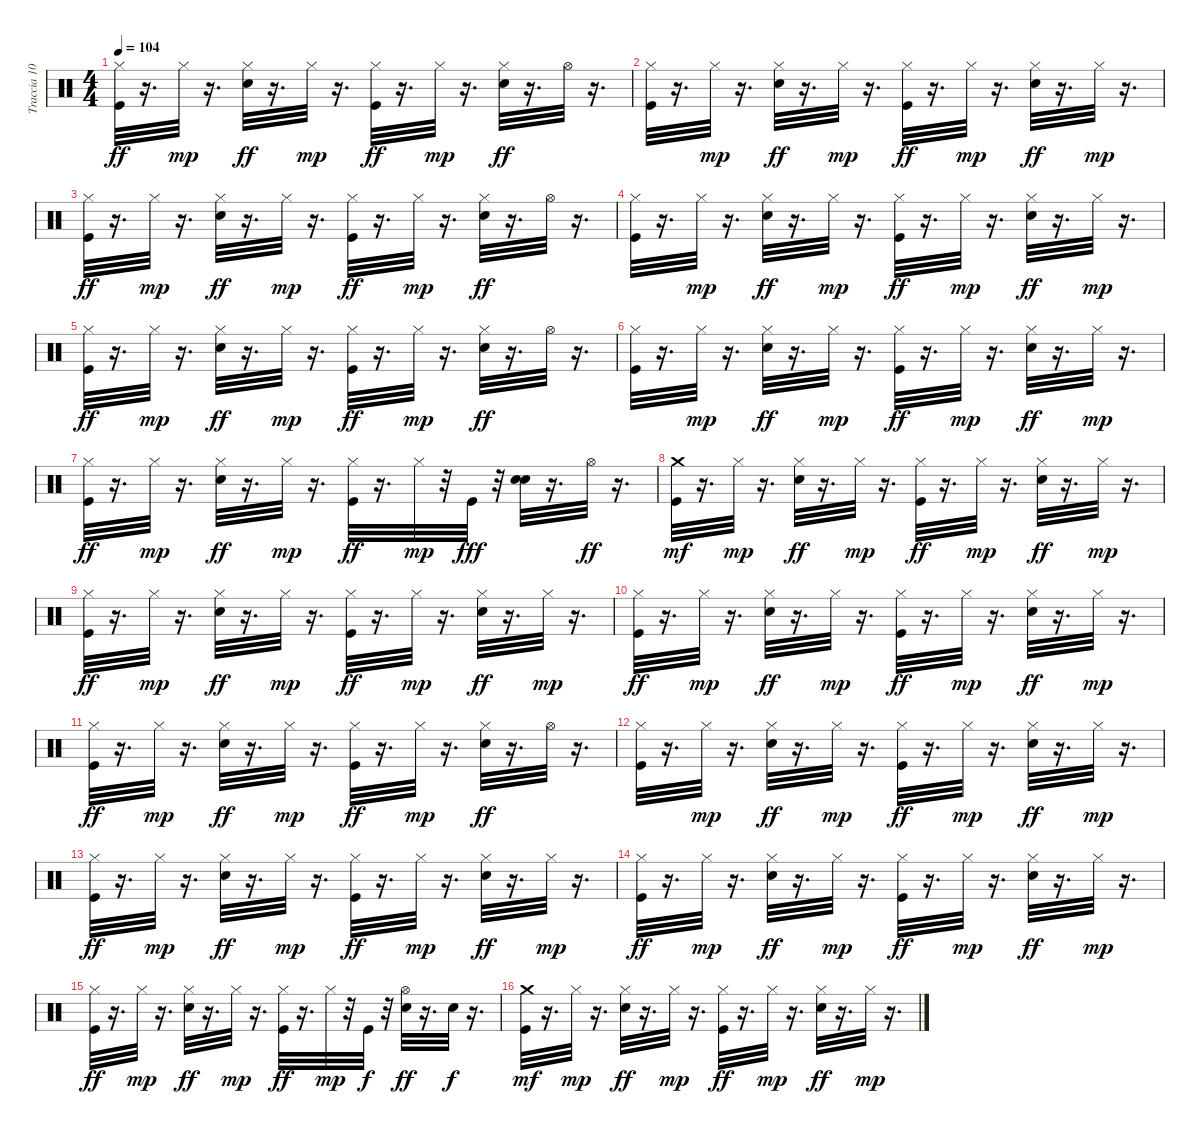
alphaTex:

\track ("Traccia 10" "Traccia 10") {instrument percussion}
\staff {score}
\articulation defaults
\ts (4 4)
\tempo 104
\clef neutral
\ks c
("Kick (hit)" "Hi-Hat (closed)").32{dy ff} r.16{d} "Hi-Hat (closed)".32{dy mp} r.16{d} ("Snare (hit) 2" "Hi-Hat (closed)").32{dy ff} r.16{d} "Hi-Hat (closed)".32{dy mp} r.16{d} ("Kick (hit)" "Hi-Hat (closed)").32{dy ff} r.16{d} "Hi-Hat (closed)".32{dy mp} r.16{d} ("Snare (hit) 2" "Hi-Hat (closed)").32{dy ff} r.16{d} "Hi-Hat (open)".32 r.16{d} |
("Kick (hit)" "Hi-Hat (closed)").32 r.16{d} "Hi-Hat (closed)".32{dy mp} r.16{d} ("Snare (hit) 2" "Hi-Hat (closed)").32{dy ff} r.16{d} "Hi-Hat (closed)".32{dy mp} r.16{d} ("Kick (hit)" "Hi-Hat (closed)").32{dy ff} r.16{d} "Hi-Hat (closed)".32{dy mp} r.16{d} ("Snare (hit) 2" "Hi-Hat (closed)").32{dy ff} r.16{d} "Hi-Hat (closed)".32{dy mp} r.16{d} |
("Kick (hit)" "Hi-Hat (closed)").32{dy ff} r.16{d} "Hi-Hat (closed)".32{dy mp} r.16{d} ("Snare (hit) 2" "Hi-Hat (closed)").32{dy ff} r.16{d} "Hi-Hat (closed)".32{dy mp} r.16{d} ("Kick (hit)" "Hi-Hat (closed)").32{dy ff} r.16{d} "Hi-Hat (closed)".32{dy mp} r.16{d} ("Snare (hit) 2" "Hi-Hat (closed)").32{dy ff} r.16{d} "Hi-Hat (open)".32 r.16{d} |
("Kick (hit)" "Hi-Hat (closed)").32 r.16{d} "Hi-Hat (closed)".32{dy mp} r.16{d} ("Snare (hit) 2" "Hi-Hat (closed)").32{dy ff} r.16{d} "Hi-Hat (closed)".32{dy mp} r.16{d} ("Kick (hit)" "Hi-Hat (closed)").32{dy ff} r.16{d} "Hi-Hat (closed)".32{dy mp} r.16{d} ("Snare (hit) 2" "Hi-Hat (closed)").32{dy ff} r.16{d} "Hi-Hat (closed)".32{dy mp} r.16{d} |
("Kick (hit)" "Hi-Hat (closed)").32{dy ff} r.16{d} "Hi-Hat (closed)".32{dy mp} r.16{d} ("Snare (hit) 2" "Hi-Hat (closed)").32{dy ff} r.16{d} "Hi-Hat (closed)".32{dy mp} r.16{d} ("Kick (hit)" "Hi-Hat (closed)").32{dy ff} r.16{d} "Hi-Hat (closed)".32{dy mp} r.16{d} ("Snare (hit) 2" "Hi-Hat (closed)").32{dy ff} r.16{d} "Hi-Hat (open)".32 r.16{d} |
("Kick (hit)" "Hi-Hat (closed)").32 r.16{d} "Hi-Hat (closed)".32{dy mp} r.16{d} ("Snare (hit) 2" "Hi-Hat (closed)").32{dy ff} r.16{d} "Hi-Hat (closed)".32{dy mp} r.16{d} ("Kick (hit)" "Hi-Hat (closed)").32{dy ff} r.16{d} "Hi-Hat (closed)".32{dy mp} r.16{d} ("Snare (hit) 2" "Hi-Hat (closed)").32{dy ff} r.16{d} "Hi-Hat (closed)".32{dy mp} r.16{d} |
("Kick (hit)" "Hi-Hat (closed)").32{dy ff} r.16{d} "Hi-Hat (closed)".32{dy mp} r.16{d} ("Snare (hit) 2" "Hi-Hat (closed)").32{dy ff} r.16{d} "Hi-Hat (closed)".32{dy mp} r.16{d} ("Kick (hit)" "Hi-Hat (closed)").32{dy ff} r.16{d} "Hi-Hat (closed)".32{dy mp} r.32 "Kick (hit)".32{dy fff} r.32 ("Snare (hit) 2" "Snare (hit) 2").32 r.16{d} "Hi-Hat (open)".32{dy ff} r.16{d} |
("Kick (hit)" "Crash medium (hit)").32{dy mf} r.16{d} "Hi-Hat (closed)".32{dy mp} r.16{d} ("Snare (hit) 2" "Hi-Hat (closed)").32{dy ff} r.16{d} "Hi-Hat (closed)".32{dy mp} r.16{d} ("Kick (hit)" "Hi-Hat (closed)").32{dy ff} r.16{d} "Hi-Hat (closed)".32{dy mp} r.16{d} ("Snare (hit) 2" "Hi-Hat (closed)").32{dy ff} r.16{d} "Hi-Hat (closed)".32{dy mp} r.16{d} |
("Kick (hit)" "Hi-Hat (closed)").32{dy ff} r.16{d} "Hi-Hat (closed)".32{dy mp} r.16{d} ("Snare (hit) 2" "Hi-Hat (closed)").32{dy ff} r.16{d} "Hi-Hat (closed)".32{dy mp} r.16{d} ("Kick (hit)" "Hi-Hat (closed)").32{dy ff} r.16{d} "Hi-Hat (closed)".32{dy mp} r.16{d} ("Snare (hit) 2" "Hi-Hat (closed)").32{dy ff} r.16{d} "Hi-Hat (closed)".32{dy mp} r.16{d} |
("Kick (hit)" "Hi-Hat (closed)").32{dy ff} r.16{d} "Hi-Hat (closed)".32{dy mp} r.16{d} ("Snare (hit) 2" "Hi-Hat (closed)").32{dy ff} r.16{d} "Hi-Hat (closed)".32{dy mp} r.16{d} ("Kick (hit)" "Hi-Hat (closed)").32{dy ff} r.16{d} "Hi-Hat (closed)".32{dy mp} r.16{d} ("Snare (hit) 2" "Hi-Hat (closed)").32{dy ff} r.16{d} "Hi-Hat (closed)".32{dy mp} r.16{d} |
("Kick (hit)" "Hi-Hat (closed)").32{dy ff} r.16{d} "Hi-Hat (closed)".32{dy mp} r.16{d} ("Snare (hit) 2" "Hi-Hat (closed)").32{dy ff} r.16{d} "Hi-Hat (closed)".32{dy mp} r.16{d} ("Kick (hit)" "Hi-Hat (closed)").32{dy ff} r.16{d} "Hi-Hat (closed)".32{dy mp} r.16{d} ("Snare (hit) 2" "Hi-Hat (closed)").32{dy ff} r.16{d} "Hi-Hat (open)".32 r.16{d} |
("Kick (hit)" "Hi-Hat (closed)").32 r.16{d} "Hi-Hat (closed)".32{dy mp} r.16{d} ("Snare (hit) 2" "Hi-Hat (closed)").32{dy ff} r.16{d} "Hi-Hat (closed)".32{dy mp} r.16{d} ("Kick (hit)" "Hi-Hat (closed)").32{dy ff} r.16{d} "Hi-Hat (closed)".32{dy mp} r.16{d} ("Snare (hit) 2" "Hi-Hat (closed)").32{dy ff} r.16{d} "Hi-Hat (closed)".32{dy mp} r.16{d} |
("Kick (hit)" "Hi-Hat (closed)").32{dy ff} r.16{d} "Hi-Hat (closed)".32{dy mp} r.16{d} ("Snare (hit) 2" "Hi-Hat (closed)").32{dy ff} r.16{d} "Hi-Hat (closed)".32{dy mp} r.16{d} ("Kick (hit)" "Hi-Hat (closed)").32{dy ff} r.16{d} "Hi-Hat (closed)".32{dy mp} r.16{d} ("Snare (hit) 2" "Hi-Hat (closed)").32{dy ff} r.16{d} "Hi-Hat (closed)".32{dy mp} r.16{d} |
("Kick (hit)" "Hi-Hat (closed)").32{dy ff} r.16{d} "Hi-Hat (closed)".32{dy mp} r.16{d} ("Snare (hit) 2" "Hi-Hat (closed)").32{dy ff} r.16{d} "Hi-Hat (closed)".32{dy mp} r.16{d} ("Kick (hit)" "Hi-Hat (closed)").32{dy ff} r.16{d} "Hi-Hat (closed)".32{dy mp} r.16{d} ("Snare (hit) 2" "Hi-Hat (closed)").32{dy ff} r.16{d} "Hi-Hat (closed)".32{dy mp} r.16{d} |
("Kick (hit)" "Hi-Hat (closed)").32{dy ff} r.16{d} "Hi-Hat (closed)".32{dy mp} r.16{d} ("Snare (hit) 2" "Hi-Hat (closed)").32{dy ff} r.16{d} "Hi-Hat (closed)".32{dy mp} r.16{d} ("Kick (hit)" "Hi-Hat (closed)").32{dy ff} r.16{d} "Hi-Hat (closed)".32{dy mp} r.32 "Kick (hit)".32{dy f} r.32 ("Snare (hit) 2" "Hi-Hat (open)").32{dy ff} r.16{d} "Snare (hit) 2".32{dy f} r.16{d} |
("Kick (hit)" "Crash medium (hit)").32{dy mf} r.16{d} "Hi-Hat (closed)".32{dy mp} r.16{d} ("Snare (hit) 2" "Hi-Hat (closed)").32{dy ff} r.16{d} "Hi-Hat (closed)".32{dy mp} r.16{d} ("Kick (hit)" "Hi-Hat (closed)").32{dy ff} r.16{d} "Hi-Hat (closed)".32{dy mp} r.16{d} ("Snare (hit) 2" "Hi-Hat (closed)").32{dy ff} r.16{d} "Hi-Hat (closed)".32{dy mp} r.16{d}
